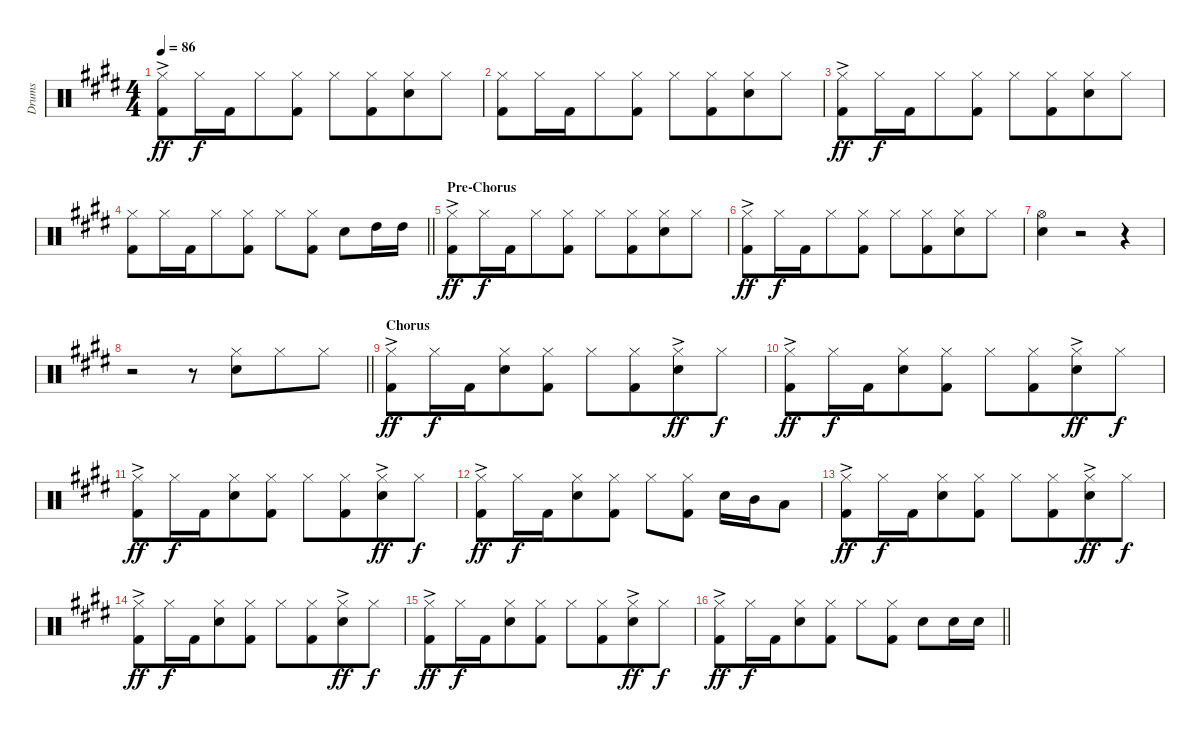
\track ("Drums" "Drums") {instrument percussion}
\staff {score}
\articulation defaults
\ts (4 4)
\tempo 86
\clef neutral
\ks e
("Hi-Hat (closed)" "Kick (hit) 2"{ac}).8{dy ff} "Hi-Hat (closed)".16{dy f} "Kick (hit) 2".16{beam merge} "Hi-Hat (closed)".8 ("Hi-Hat (closed)" "Kick (hit) 2").8 "Hi-Hat (closed)".8 ("Hi-Hat (closed)" "Kick (hit) 2").8{beam merge} ("Hi-Hat (closed)" "Electric Snare (hit)").8 "Hi-Hat (closed)".8 |
("Hi-Hat (closed)" "Kick (hit) 2").8 "Hi-Hat (closed)".16 "Kick (hit) 2".16{beam merge} "Hi-Hat (closed)".8 ("Hi-Hat (closed)" "Kick (hit) 2").8 "Hi-Hat (closed)".8 ("Hi-Hat (closed)" "Kick (hit) 2").8{beam merge} ("Hi-Hat (closed)" "Electric Snare (hit)").8 "Hi-Hat (closed)".8 |
("Hi-Hat (closed)" "Kick (hit) 2"{ac}).8{dy ff} "Hi-Hat (closed)".16{dy f} "Kick (hit) 2".16{beam merge} "Hi-Hat (closed)".8 ("Hi-Hat (closed)" "Kick (hit) 2").8 "Hi-Hat (closed)".8 ("Hi-Hat (closed)" "Kick (hit) 2").8{beam merge} ("Hi-Hat (closed)" "Electric Snare (hit)").8 "Hi-Hat (closed)".8 |
\barLineRight lightlight
("Hi-Hat (closed)" "Kick (hit) 2").8 "Hi-Hat (closed)".16 "Kick (hit) 2".16{beam merge} "Hi-Hat (closed)".8 ("Hi-Hat (closed)" "Kick (hit) 2").8 "Hi-Hat (closed)".8 ("Hi-Hat (closed)" "Kick (hit) 2").8 "Electric Snare (hit)".8 "High Tom (hit)".16 "High Tom (hit)".16 |
\section ("" "Pre-Chorus")
("Hi-Hat (closed)" "Kick (hit) 2"{ac}).8{dy ff} "Hi-Hat (closed)".16{dy f} "Kick (hit) 2".16{beam merge} "Hi-Hat (closed)".8 ("Hi-Hat (closed)" "Kick (hit) 2").8 "Hi-Hat (closed)".8 ("Hi-Hat (closed)" "Kick (hit) 2").8{beam merge} ("Hi-Hat (closed)" "Electric Snare (hit)").8 "Hi-Hat (closed)".8 |
("Hi-Hat (closed)" "Kick (hit) 2"{ac}).8{dy ff} "Hi-Hat (closed)".16{dy f} "Kick (hit) 2".16{beam merge} "Hi-Hat (closed)".8 ("Hi-Hat (closed)" "Kick (hit) 2").8 "Hi-Hat (closed)".8 ("Hi-Hat (closed)" "Kick (hit) 2").8{beam merge} ("Hi-Hat (closed)" "Electric Snare (hit)").8 "Hi-Hat (closed)".8 |
("Hi-Hat (open)" "Electric Snare (hit)").4 r.2 r.4 |
\barLineRight lightlight
r.2 r.8 ("Hi-Hat (closed)" "Electric Snare (hit)").8{beam merge} "Hi-Hat (closed)".8 "Hi-Hat (closed)".8 |
\section ("" "Chorus")
("Hi-Hat (closed)" "Kick (hit) 2"{ac}).8{dy ff} "Hi-Hat (closed)".16{dy f} "Kick (hit) 2".16{beam merge} ("Hi-Hat (closed)" "Electric Snare (hit)").8 ("Hi-Hat (closed)" "Kick (hit) 2").8 "Hi-Hat (closed)".8 ("Hi-Hat (closed)" "Kick (hit) 2").8{beam merge} ("Hi-Hat (closed)" "Electric Snare (hit)"{ac}).8{dy ff} "Hi-Hat (closed)".8{dy f} |
("Hi-Hat (closed)" "Kick (hit) 2"{ac}).8{dy ff} "Hi-Hat (closed)".16{dy f} "Kick (hit) 2".16{beam merge} ("Hi-Hat (closed)" "Electric Snare (hit)").8 ("Hi-Hat (closed)" "Kick (hit) 2").8 "Hi-Hat (closed)".8 ("Hi-Hat (closed)" "Kick (hit) 2").8{beam merge} ("Hi-Hat (closed)" "Electric Snare (hit)"{ac}).8{dy ff} "Hi-Hat (closed)".8{dy f} |
("Hi-Hat (closed)" "Kick (hit) 2"{ac}).8{dy ff} "Hi-Hat (closed)".16{dy f} "Kick (hit) 2".16{beam merge} ("Hi-Hat (closed)" "Electric Snare (hit)").8 ("Hi-Hat (closed)" "Kick (hit) 2").8 "Hi-Hat (closed)".8 ("Hi-Hat (closed)" "Kick (hit) 2").8{beam merge} ("Hi-Hat (closed)" "Electric Snare (hit)"{ac}).8{dy ff} "Hi-Hat (closed)".8{dy f} |
("Hi-Hat (closed)" "Kick (hit) 2"{ac}).8{dy ff} "Hi-Hat (closed)".16{dy f} "Kick (hit) 2".16{beam merge} ("Hi-Hat (closed)" "Electric Snare (hit)").8 ("Hi-Hat (closed)" "Kick (hit) 2").8 "Hi-Hat (closed)".8 ("Hi-Hat (closed)" "Kick (hit) 2").8 "Electric Snare (hit)".16 "Mid Tom (hit)".16 "Low Tom (hit)".8 |
("Hi-Hat (closed)" "Kick (hit) 2"{ac}).8{dy ff} "Hi-Hat (closed)".16{dy f} "Kick (hit) 2".16{beam merge} ("Hi-Hat (closed)" "Electric Snare (hit)").8 ("Hi-Hat (closed)" "Kick (hit) 2").8 "Hi-Hat (closed)".8 ("Hi-Hat (closed)" "Kick (hit) 2").8{beam merge} ("Hi-Hat (closed)" "Electric Snare (hit)"{ac}).8{dy ff} "Hi-Hat (closed)".8{dy f} |
("Hi-Hat (closed)" "Kick (hit) 2"{ac}).8{dy ff} "Hi-Hat (closed)".16{dy f} "Kick (hit) 2".16{beam merge} ("Hi-Hat (closed)" "Electric Snare (hit)").8 ("Hi-Hat (closed)" "Kick (hit) 2").8 "Hi-Hat (closed)".8 ("Hi-Hat (closed)" "Kick (hit) 2").8{beam merge} ("Hi-Hat (closed)" "Electric Snare (hit)"{ac}).8{dy ff} "Hi-Hat (closed)".8{dy f} |
("Hi-Hat (closed)" "Kick (hit) 2"{ac}).8{dy ff} "Hi-Hat (closed)".16{dy f} "Kick (hit) 2".16{beam merge} ("Hi-Hat (closed)" "Electric Snare (hit)").8 ("Hi-Hat (closed)" "Kick (hit) 2").8 "Hi-Hat (closed)".8 ("Hi-Hat (closed)" "Kick (hit) 2").8{beam merge} ("Hi-Hat (closed)" "Electric Snare (hit)"{ac}).8{dy ff} "Hi-Hat (closed)".8{dy f} |
\barLineRight lightlight
("Hi-Hat (closed)" "Kick (hit) 2"{ac}).8{dy ff} "Hi-Hat (closed)".16{dy f} "Kick (hit) 2".16{beam merge} ("Hi-Hat (closed)" "Electric Snare (hit)").8 ("Hi-Hat (closed)" "Kick (hit) 2").8 "Hi-Hat (closed)".8 ("Hi-Hat (closed)" "Kick (hit) 2").8 "Electric Snare (hit)".8 "Electric Snare (hit)".16 "Electric Snare (hit)".16
